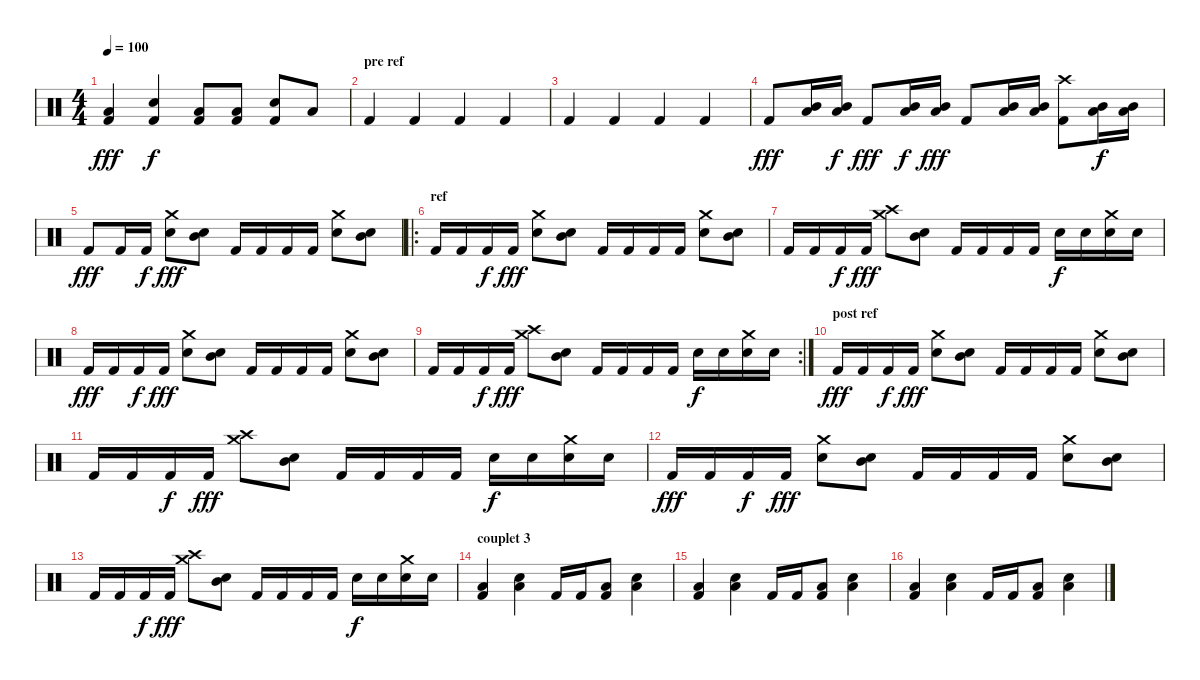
\track "" {instrument percussion}
\staff {score}
\articulation defaults
\ts (4 4)
\tempo 100
\clef neutral
\ks c
("Kick (hit) 2" "Low Tom (hit)").4{dy fff} ("Electric Snare (hit)" "Kick (hit) 2").4{dy f} ("Kick (hit) 2" "Low Tom (hit)").8 ("Kick (hit) 2" "Low Tom (hit)").8 ("Kick (hit) 2" "Electric Snare (hit)").8 "Low Tom (hit)".8 |
\section ("" "pre ref")
"Kick (hit) 2".4 "Kick (hit) 2".4 "Kick (hit) 2".4 "Kick (hit) 2".4 |
"Kick (hit) 2".4 "Kick (hit) 2".4 "Kick (hit) 2".4 "Kick (hit) 2".4 |
"Kick (hit) 2".8{dy fff} ("Low Tom (hit)" "Mid Tom (hit)").16 ("Low Tom (hit)" "Mid Tom (hit)").16{dy f} "Kick (hit) 2".8{dy fff} ("Low Tom (hit)" "Mid Tom (hit)").16{dy f} ("Mid Tom (hit)" "Low Tom (hit)").16{dy fff} "Kick (hit) 2".8 ("Low Tom (hit)" "Mid Tom (hit)").16 ("Low Tom (hit)" "Mid Tom (hit)").16 ("Kick (hit) 2" "Crash high (hit)").8 ("Low Tom (hit)" "Mid Tom (hit)").16{dy f} ("Low Tom (hit)" "Mid Tom (hit)").16 |
"Kick (hit) 2".8{dy fff} "Kick (hit) 2".16 "Kick (hit) 2".16{dy f} ("Electric Snare (hit)" "Crash medium (hit)").8{dy fff} ("Snare (hit) 2" "Mid Tom (hit)").8 "Kick (hit) 2".16 "Kick (hit) 2".16 "Kick (hit) 2".16 "Kick (hit) 2".16 ("Electric Snare (hit)" "Crash medium (hit)").8 ("Snare (hit) 2" "Mid Tom (hit)").8 |
\ro
\section ("" "ref")
"Kick (hit) 2".16 "Kick (hit) 2".16 "Kick (hit) 2".16{dy f} "Kick (hit) 2".16{dy fff} ("Electric Snare (hit)" "Crash medium (hit)").8 ("Snare (hit) 2" "Mid Tom (hit)").8 "Kick (hit) 2".16 "Kick (hit) 2".16 "Kick (hit) 2".16 "Kick (hit) 2".16 ("Electric Snare (hit)" "Crash medium (hit)").8 ("Snare (hit) 2" "Mid Tom (hit)").8 |
"Kick (hit) 2".16 "Kick (hit) 2".16 "Kick (hit) 2".16{dy f} "Kick (hit) 2".16{dy fff} ("Crash high (hit)" "Crash medium (hit)").8 ("Snare (hit) 2" "Mid Tom (hit)").8 "Kick (hit) 2".16 "Kick (hit) 2".16 "Kick (hit) 2".16 "Kick (hit) 2".16 "Electric Snare (hit)".16{dy f} "Electric Snare (hit)".16 ("Electric Snare (hit)" "Crash medium (hit)").16 "Electric Snare (hit)".16 |
"Kick (hit) 2".16{dy fff} "Kick (hit) 2".16 "Kick (hit) 2".16{dy f} "Kick (hit) 2".16{dy fff} ("Electric Snare (hit)" "Crash medium (hit)").8 ("Snare (hit) 2" "Mid Tom (hit)").8 "Kick (hit) 2".16 "Kick (hit) 2".16 "Kick (hit) 2".16 "Kick (hit) 2".16 ("Electric Snare (hit)" "Crash medium (hit)").8 ("Snare (hit) 2" "Mid Tom (hit)").8 |
\rc 2 "Kick (hit) 2".16 "Kick (hit) 2".16 "Kick (hit) 2".16{dy f} "Kick (hit) 2".16{dy fff}
("Crash high (hit)" "Crash medium (hit)").8 ("Snare (hit) 2" "Mid Tom (hit)").8 "Kick (hit) 2".16 "Kick (hit) 2".16 "Kick (hit) 2".16 "Kick (hit) 2".16 "Electric Snare (hit)".16{dy f} "Electric Snare (hit)".16 ("Electric Snare (hit)" "Crash medium (hit)").16 "Electric Snare (hit)".16 |
\section ("" "post ref")
"Kick (hit) 2".16{dy fff} "Kick (hit) 2".16 "Kick (hit) 2".16{dy f} "Kick (hit) 2".16{dy fff} ("Electric Snare (hit)" "Crash medium (hit)").8 ("Snare (hit) 2" "Mid Tom (hit)").8 "Kick (hit) 2".16 "Kick (hit) 2".16 "Kick (hit) 2".16 "Kick (hit) 2".16 ("Electric Snare (hit)" "Crash medium (hit)").8 ("Snare (hit) 2" "Mid Tom (hit)").8 |
"Kick (hit) 2".16 "Kick (hit) 2".16 "Kick (hit) 2".16{dy f} "Kick (hit) 2".16{dy fff} ("Crash high (hit)" "Crash medium (hit)").8 ("Snare (hit) 2" "Mid Tom (hit)").8 "Kick (hit) 2".16 "Kick (hit) 2".16 "Kick (hit) 2".16 "Kick (hit) 2".16 "Electric Snare (hit)".16{dy f} "Electric Snare (hit)".16 ("Electric Snare (hit)" "Crash medium (hit)").16 "Electric Snare (hit)".16 |
"Kick (hit) 2".16{dy fff} "Kick (hit) 2".16 "Kick (hit) 2".16{dy f} "Kick (hit) 2".16{dy fff} ("Electric Snare (hit)" "Crash medium (hit)").8 ("Snare (hit) 2" "Mid Tom (hit)").8 "Kick (hit) 2".16 "Kick (hit) 2".16 "Kick (hit) 2".16 "Kick (hit) 2".16 ("Electric Snare (hit)" "Crash medium (hit)").8 ("Snare (hit) 2" "Mid Tom (hit)").8 |
"Kick (hit) 2".16 "Kick (hit) 2".16 "Kick (hit) 2".16{dy f} "Kick (hit) 2".16{dy fff} ("Crash high (hit)" "Crash medium (hit)").8 ("Snare (hit) 2" "Mid Tom (hit)").8 "Kick (hit) 2".16 "Kick (hit) 2".16 "Kick (hit) 2".16 "Kick (hit) 2".16 "Electric Snare (hit)".16{dy f} "Electric Snare (hit)".16 ("Electric Snare (hit)" "Crash medium (hit)").16 "Electric Snare (hit)".16 |
\section ("" "couplet 3")
("Low Tom (hit)" "Kick (hit) 2").4 ("Low Tom (hit)" "Electric Snare (hit)").4 "Kick (hit) 2".16 "Kick (hit) 2".16 ("Low Tom (hit)" "Kick (hit) 2").8 ("Low Tom (hit)" "Electric Snare (hit)").4 |
("Low Tom (hit)" "Kick (hit) 2").4 ("Low Tom (hit)" "Electric Snare (hit)").4 "Kick (hit) 2".16 "Kick (hit) 2".16 ("Low Tom (hit)" "Kick (hit) 2").8 ("Low Tom (hit)" "Electric Snare (hit)").4 |
("Low Tom (hit)" "Kick (hit) 2").4 ("Low Tom (hit)" "Electric Snare (hit)").4 "Kick (hit) 2".16 "Kick (hit) 2".16 ("Low Tom (hit)" "Kick (hit) 2").8 ("Low Tom (hit)" "Electric Snare (hit)").4
